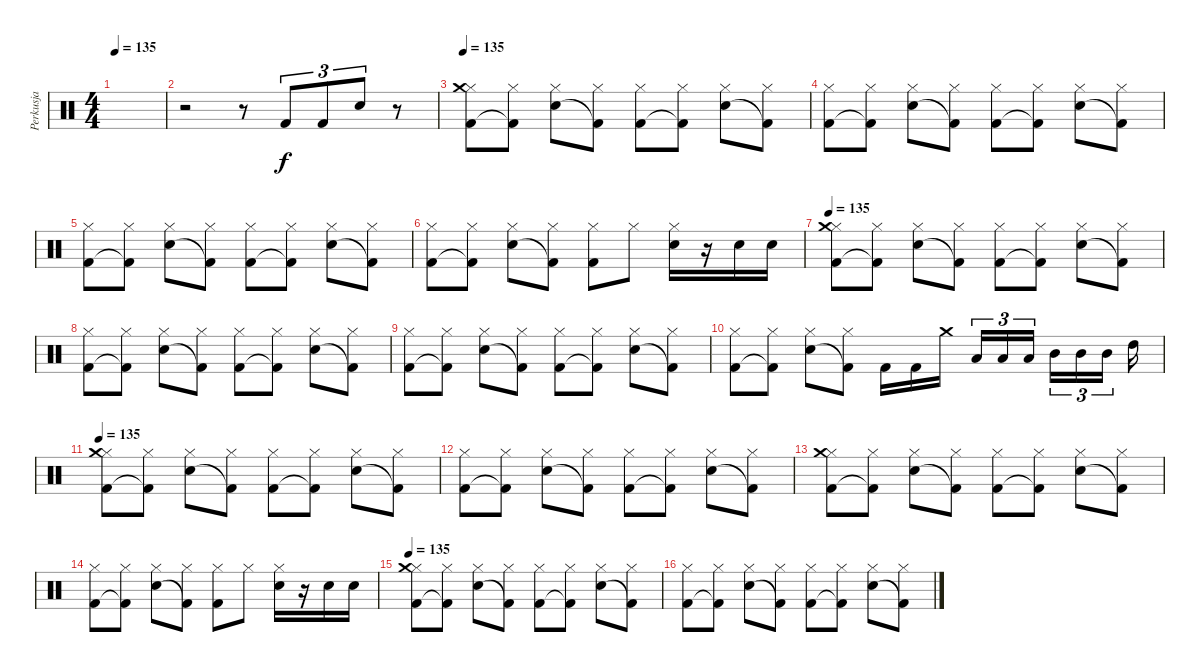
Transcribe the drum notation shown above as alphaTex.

\track ("Perkusja" "Perkusja") {instrument percussion}
\staff {score}
\articulation defaults
\ts (4 4)
\tempo 135
\clef neutral
\ks c
|
r.2 r.8 "Kick (hit) 2".8{tu (3 2)} "Kick (hit) 2".8{tu (3 2)} "Snare (hit) 2".8{tu (3 2)} r.8 |
\tempo 135
("Kick (hit) 2" "Hi-Hat (closed)" "Crash medium (hit)").8 ("Kick (hit) 2"{t} "Hi-Hat (closed)").8 ("Snare (hit) 2" "Hi-Hat (closed)").8 ("Kick (hit) 2"{t} "Hi-Hat (closed)").8 ("Kick (hit) 2" "Hi-Hat (closed)").8 ("Kick (hit) 2"{t} "Hi-Hat (closed)").8 ("Snare (hit) 2" "Hi-Hat (closed)").8 ("Kick (hit) 2"{t} "Hi-Hat (closed)").8 |
("Kick (hit) 2" "Hi-Hat (closed)").8 ("Kick (hit) 2"{t} "Hi-Hat (closed)").8 ("Snare (hit) 2" "Hi-Hat (closed)").8 ("Kick (hit) 2"{t} "Hi-Hat (closed)").8 ("Kick (hit) 2" "Hi-Hat (closed)").8 ("Kick (hit) 2"{t} "Hi-Hat (closed)").8 ("Snare (hit) 2" "Hi-Hat (closed)").8 ("Kick (hit) 2"{t} "Hi-Hat (closed)").8 |
("Kick (hit) 2" "Hi-Hat (closed)").8 ("Kick (hit) 2"{t} "Hi-Hat (closed)").8 ("Snare (hit) 2" "Hi-Hat (closed)").8 ("Kick (hit) 2"{t} "Hi-Hat (closed)").8 ("Kick (hit) 2" "Hi-Hat (closed)").8 ("Kick (hit) 2"{t} "Hi-Hat (closed)").8 ("Snare (hit) 2" "Hi-Hat (closed)").8 ("Kick (hit) 2"{t} "Hi-Hat (closed)").8 |
("Kick (hit) 2" "Hi-Hat (closed)").8 ("Kick (hit) 2"{t} "Hi-Hat (closed)").8 ("Snare (hit) 2" "Hi-Hat (closed)").8 ("Kick (hit) 2"{t} "Hi-Hat (closed)").8 ("Kick (hit) 2" "Hi-Hat (closed)").8 "Hi-Hat (closed)".8 ("Snare (hit) 2" "Hi-Hat (closed)").16 r.16 "Snare (hit) 2".16 "Snare (hit) 2".16 |
\tempo 135
("Kick (hit) 2" "Hi-Hat (closed)" "Crash medium (hit)").8 ("Kick (hit) 2"{t} "Hi-Hat (closed)").8 ("Snare (hit) 2" "Hi-Hat (closed)").8 ("Kick (hit) 2"{t} "Hi-Hat (closed)").8 ("Kick (hit) 2" "Hi-Hat (closed)").8 ("Kick (hit) 2"{t} "Hi-Hat (closed)").8 ("Snare (hit) 2" "Hi-Hat (closed)").8 ("Kick (hit) 2"{t} "Hi-Hat (closed)").8 |
("Kick (hit) 2" "Hi-Hat (closed)").8 ("Kick (hit) 2"{t} "Hi-Hat (closed)").8 ("Snare (hit) 2" "Hi-Hat (closed)").8 ("Kick (hit) 2"{t} "Hi-Hat (closed)").8 ("Kick (hit) 2" "Hi-Hat (closed)").8 ("Kick (hit) 2"{t} "Hi-Hat (closed)").8 ("Snare (hit) 2" "Hi-Hat (closed)").8 ("Kick (hit) 2"{t} "Hi-Hat (closed)").8 |
("Kick (hit) 2" "Hi-Hat (closed)").8 ("Kick (hit) 2"{t} "Hi-Hat (closed)").8 ("Snare (hit) 2" "Hi-Hat (closed)").8 ("Kick (hit) 2"{t} "Hi-Hat (closed)").8 ("Kick (hit) 2" "Hi-Hat (closed)").8 ("Kick (hit) 2"{t} "Hi-Hat (closed)").8 ("Snare (hit) 2" "Hi-Hat (closed)").8 ("Kick (hit) 2"{t} "Hi-Hat (closed)").8 |
("Kick (hit) 2" "Hi-Hat (closed)").8 ("Kick (hit) 2"{t} "Hi-Hat (closed)").8 ("Snare (hit) 2" "Hi-Hat (closed)").8 ("Kick (hit) 2"{t} "Hi-Hat (closed)").8 "Kick (hit) 2".16 "Kick (hit) 2".16 "Crash medium (hit)".16 "Low Tom (hit)".16{tu (3 2)} "Low Tom (hit)".16{tu (3 2)} "Low Tom (hit)".16{tu (3 2)} "Mid Tom (hit)".16{tu (3 2)} "Mid Tom (hit)".16{tu (3 2)} "Mid Tom (hit)".16{tu (3 2)} "High Tom (hit)".16 |
\tempo 135
("Kick (hit) 2" "Hi-Hat (closed)" "Crash medium (hit)").8 ("Kick (hit) 2"{t} "Hi-Hat (closed)").8 ("Snare (hit) 2" "Hi-Hat (closed)").8 ("Kick (hit) 2"{t} "Hi-Hat (closed)").8 ("Kick (hit) 2" "Hi-Hat (closed)").8 ("Kick (hit) 2"{t} "Hi-Hat (closed)").8 ("Snare (hit) 2" "Hi-Hat (closed)").8 ("Kick (hit) 2"{t} "Hi-Hat (closed)").8 |
("Kick (hit) 2" "Hi-Hat (closed)").8 ("Kick (hit) 2"{t} "Hi-Hat (closed)").8 ("Snare (hit) 2" "Hi-Hat (closed)").8 ("Kick (hit) 2"{t} "Hi-Hat (closed)").8 ("Kick (hit) 2" "Hi-Hat (closed)").8 ("Kick (hit) 2"{t} "Hi-Hat (closed)").8 ("Snare (hit) 2" "Hi-Hat (closed)").8 ("Kick (hit) 2"{t} "Hi-Hat (closed)").8 |
("Kick (hit) 2" "Hi-Hat (closed)" "Crash medium (hit)").8 ("Kick (hit) 2"{t} "Hi-Hat (closed)").8 ("Snare (hit) 2" "Hi-Hat (closed)").8 ("Kick (hit) 2"{t} "Hi-Hat (closed)").8 ("Kick (hit) 2" "Hi-Hat (closed)").8 ("Kick (hit) 2"{t} "Hi-Hat (closed)").8 ("Snare (hit) 2" "Hi-Hat (closed)").8 ("Kick (hit) 2"{t} "Hi-Hat (closed)").8 |
("Kick (hit) 2" "Hi-Hat (closed)").8 ("Kick (hit) 2"{t} "Hi-Hat (closed)").8 ("Snare (hit) 2" "Hi-Hat (closed)").8 ("Kick (hit) 2"{t} "Hi-Hat (closed)").8 ("Kick (hit) 2" "Hi-Hat (closed)").8 "Hi-Hat (closed)".8 ("Snare (hit) 2" "Hi-Hat (closed)").16 r.16 "Snare (hit) 2".16 "Snare (hit) 2".16 |
\tempo 135
("Kick (hit) 2" "Hi-Hat (closed)" "Crash medium (hit)").8 ("Kick (hit) 2"{t} "Hi-Hat (closed)").8 ("Snare (hit) 2" "Hi-Hat (closed)").8 ("Kick (hit) 2"{t} "Hi-Hat (closed)").8 ("Kick (hit) 2" "Hi-Hat (closed)").8 ("Kick (hit) 2"{t} "Hi-Hat (closed)").8 ("Snare (hit) 2" "Hi-Hat (closed)").8 ("Kick (hit) 2"{t} "Hi-Hat (closed)").8 |
("Kick (hit) 2" "Hi-Hat (closed)").8 ("Kick (hit) 2"{t} "Hi-Hat (closed)").8 ("Snare (hit) 2" "Hi-Hat (closed)").8 ("Kick (hit) 2"{t} "Hi-Hat (closed)").8 ("Kick (hit) 2" "Hi-Hat (closed)").8 ("Kick (hit) 2"{t} "Hi-Hat (closed)").8 ("Snare (hit) 2" "Hi-Hat (closed)").8 ("Kick (hit) 2"{t} "Hi-Hat (closed)").8
